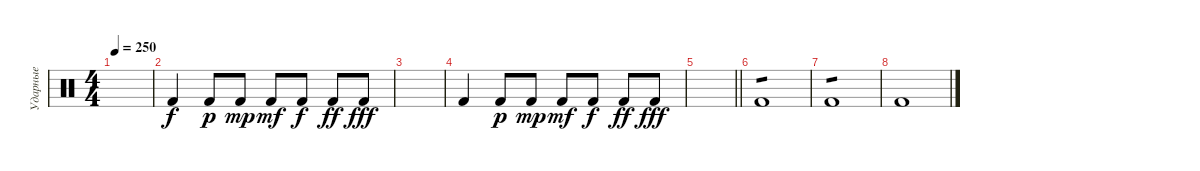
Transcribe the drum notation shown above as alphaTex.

\track ("Ударные" "Ударные") {instrument percussion}
\staff {score}
\articulation defaults
\ts (4 4)
\tempo 250
\clef neutral
\ks c
|
"Kick (hit) 2".4 "Kick (hit) 2".8{dy p} "Kick (hit) 2".8{dy mp} "Kick (hit) 2".8{dy mf} "Kick (hit) 2".8{dy f} "Kick (hit) 2".8{dy ff} "Kick (hit) 2".8{dy fff} |
|
"Kick (hit) 2".4 "Kick (hit) 2".8{dy p} "Kick (hit) 2".8{dy mp} "Kick (hit) 2".8{dy mf} "Kick (hit) 2".8{dy f} "Kick (hit) 2".8{dy ff} "Kick (hit) 2".8{dy fff} |
\barLineRight lightlight
|
"Kick (hit) 2".1{tp 1} |
"Kick (hit) 2".1{tp 1} |
"Kick (hit) 2".1
